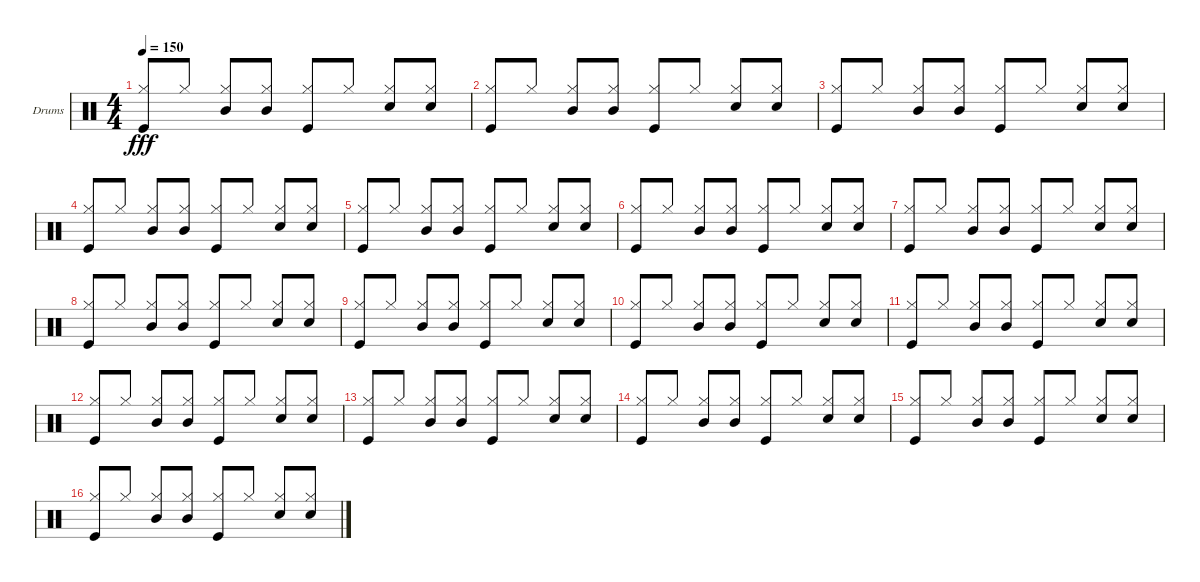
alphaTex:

\defaultSystemsLayout 4
\bracketExtendMode groupsimilarinstruments
\firstSystemTrackNameOrientation horizontal
\otherSystemsTrackNameOrientation horizontal
\track ("Drumkit" "Drums") {instrument percussion}
\staff {score}
\articulation defaults
\ts (4 4)
\tempo 150
\clef neutral
\ks c
("Kick (hit)" "Hi-Hat (closed)").8{dy fff beam invert} "Hi-Hat (closed)".8 ("Mid Tom (hit)" "Hi-Hat (closed)").8{beam invert} ("Mid Tom (hit)" "Hi-Hat (closed)").8 ("Hi-Hat (closed)" "Kick (hit)").8{beam invert} "Hi-Hat (closed)".8 ("Snare (hit) 2" "Hi-Hat (closed)").8{beam invert} ("Snare (hit) 2" "Hi-Hat (closed)").8 |
("Kick (hit)" "Hi-Hat (closed)").8{beam invert} "Hi-Hat (closed)".8 ("Mid Tom (hit)" "Hi-Hat (closed)").8{beam invert} ("Mid Tom (hit)" "Hi-Hat (closed)").8 ("Hi-Hat (closed)" "Kick (hit)").8{beam invert} "Hi-Hat (closed)".8 ("Snare (hit) 2" "Hi-Hat (closed)").8{beam invert} ("Snare (hit) 2" "Hi-Hat (closed)").8 |
("Kick (hit)" "Hi-Hat (closed)").8{beam invert} "Hi-Hat (closed)".8 ("Mid Tom (hit)" "Hi-Hat (closed)").8{beam invert} ("Mid Tom (hit)" "Hi-Hat (closed)").8 ("Hi-Hat (closed)" "Kick (hit)").8{beam invert} "Hi-Hat (closed)".8 ("Snare (hit) 2" "Hi-Hat (closed)").8{beam invert} ("Snare (hit) 2" "Hi-Hat (closed)").8 |
("Kick (hit)" "Hi-Hat (closed)").8{beam invert} "Hi-Hat (closed)".8 ("Mid Tom (hit)" "Hi-Hat (closed)").8{beam invert} ("Mid Tom (hit)" "Hi-Hat (closed)").8 ("Hi-Hat (closed)" "Kick (hit)").8{beam invert} "Hi-Hat (closed)".8 ("Snare (hit) 2" "Hi-Hat (closed)").8{beam invert} ("Snare (hit) 2" "Hi-Hat (closed)").8 |
("Kick (hit)" "Hi-Hat (closed)").8{beam invert} "Hi-Hat (closed)".8 ("Mid Tom (hit)" "Hi-Hat (closed)").8{beam invert} ("Mid Tom (hit)" "Hi-Hat (closed)").8 ("Hi-Hat (closed)" "Kick (hit)").8{beam invert} "Hi-Hat (closed)".8 ("Snare (hit) 2" "Hi-Hat (closed)").8{beam invert} ("Snare (hit) 2" "Hi-Hat (closed)").8 |
("Kick (hit)" "Hi-Hat (closed)").8{beam invert} "Hi-Hat (closed)".8 ("Mid Tom (hit)" "Hi-Hat (closed)").8{beam invert} ("Mid Tom (hit)" "Hi-Hat (closed)").8 ("Hi-Hat (closed)" "Kick (hit)").8{beam invert} "Hi-Hat (closed)".8 ("Snare (hit) 2" "Hi-Hat (closed)").8{beam invert} ("Snare (hit) 2" "Hi-Hat (closed)").8 |
("Kick (hit)" "Hi-Hat (closed)").8{beam invert} "Hi-Hat (closed)".8 ("Mid Tom (hit)" "Hi-Hat (closed)").8{beam invert} ("Mid Tom (hit)" "Hi-Hat (closed)").8 ("Hi-Hat (closed)" "Kick (hit)").8{beam invert} "Hi-Hat (closed)".8 ("Snare (hit) 2" "Hi-Hat (closed)").8{beam invert} ("Snare (hit) 2" "Hi-Hat (closed)").8 |
("Kick (hit)" "Hi-Hat (closed)").8{beam invert} "Hi-Hat (closed)".8 ("Mid Tom (hit)" "Hi-Hat (closed)").8{beam invert} ("Mid Tom (hit)" "Hi-Hat (closed)").8 ("Hi-Hat (closed)" "Kick (hit)").8{beam invert} "Hi-Hat (closed)".8 ("Snare (hit) 2" "Hi-Hat (closed)").8{beam invert} ("Snare (hit) 2" "Hi-Hat (closed)").8 |
("Kick (hit)" "Hi-Hat (closed)").8{beam invert} "Hi-Hat (closed)".8 ("Mid Tom (hit)" "Hi-Hat (closed)").8{beam invert} ("Mid Tom (hit)" "Hi-Hat (closed)").8 ("Hi-Hat (closed)" "Kick (hit)").8{beam invert} "Hi-Hat (closed)".8 ("Snare (hit) 2" "Hi-Hat (closed)").8{beam invert} ("Snare (hit) 2" "Hi-Hat (closed)").8 |
("Kick (hit)" "Hi-Hat (closed)").8{beam invert} "Hi-Hat (closed)".8 ("Mid Tom (hit)" "Hi-Hat (closed)").8{beam invert} ("Mid Tom (hit)" "Hi-Hat (closed)").8 ("Hi-Hat (closed)" "Kick (hit)").8{beam invert} "Hi-Hat (closed)".8 ("Snare (hit) 2" "Hi-Hat (closed)").8{beam invert} ("Snare (hit) 2" "Hi-Hat (closed)").8 |
("Kick (hit)" "Hi-Hat (closed)").8{beam invert} "Hi-Hat (closed)".8 ("Mid Tom (hit)" "Hi-Hat (closed)").8{beam invert} ("Mid Tom (hit)" "Hi-Hat (closed)").8 ("Hi-Hat (closed)" "Kick (hit)").8{beam invert} "Hi-Hat (closed)".8 ("Snare (hit) 2" "Hi-Hat (closed)").8{beam invert} ("Snare (hit) 2" "Hi-Hat (closed)").8 |
("Kick (hit)" "Hi-Hat (closed)").8{beam invert} "Hi-Hat (closed)".8 ("Mid Tom (hit)" "Hi-Hat (closed)").8{beam invert} ("Mid Tom (hit)" "Hi-Hat (closed)").8 ("Hi-Hat (closed)" "Kick (hit)").8{beam invert} "Hi-Hat (closed)".8 ("Snare (hit) 2" "Hi-Hat (closed)").8{beam invert} ("Snare (hit) 2" "Hi-Hat (closed)").8 |
("Kick (hit)" "Hi-Hat (closed)").8{beam invert} "Hi-Hat (closed)".8 ("Mid Tom (hit)" "Hi-Hat (closed)").8{beam invert} ("Mid Tom (hit)" "Hi-Hat (closed)").8 ("Hi-Hat (closed)" "Kick (hit)").8{beam invert} "Hi-Hat (closed)".8 ("Snare (hit) 2" "Hi-Hat (closed)").8{beam invert} ("Snare (hit) 2" "Hi-Hat (closed)").8 |
("Kick (hit)" "Hi-Hat (closed)").8{beam invert} "Hi-Hat (closed)".8 ("Mid Tom (hit)" "Hi-Hat (closed)").8{beam invert} ("Mid Tom (hit)" "Hi-Hat (closed)").8 ("Hi-Hat (closed)" "Kick (hit)").8{beam invert} "Hi-Hat (closed)".8 ("Snare (hit) 2" "Hi-Hat (closed)").8{beam invert} ("Snare (hit) 2" "Hi-Hat (closed)").8 |
("Kick (hit)" "Hi-Hat (closed)").8{beam invert} "Hi-Hat (closed)".8 ("Mid Tom (hit)" "Hi-Hat (closed)").8{beam invert} ("Mid Tom (hit)" "Hi-Hat (closed)").8 ("Hi-Hat (closed)" "Kick (hit)").8{beam invert} "Hi-Hat (closed)".8 ("Snare (hit) 2" "Hi-Hat (closed)").8{beam invert} ("Snare (hit) 2" "Hi-Hat (closed)").8 |
("Kick (hit)" "Hi-Hat (closed)").8{beam invert} "Hi-Hat (closed)".8 ("Mid Tom (hit)" "Hi-Hat (closed)").8{beam invert} ("Mid Tom (hit)" "Hi-Hat (closed)").8 ("Hi-Hat (closed)" "Kick (hit)").8{beam invert} "Hi-Hat (closed)".8 ("Snare (hit) 2" "Hi-Hat (closed)").8{beam invert} ("Snare (hit) 2" "Hi-Hat (closed)").8
